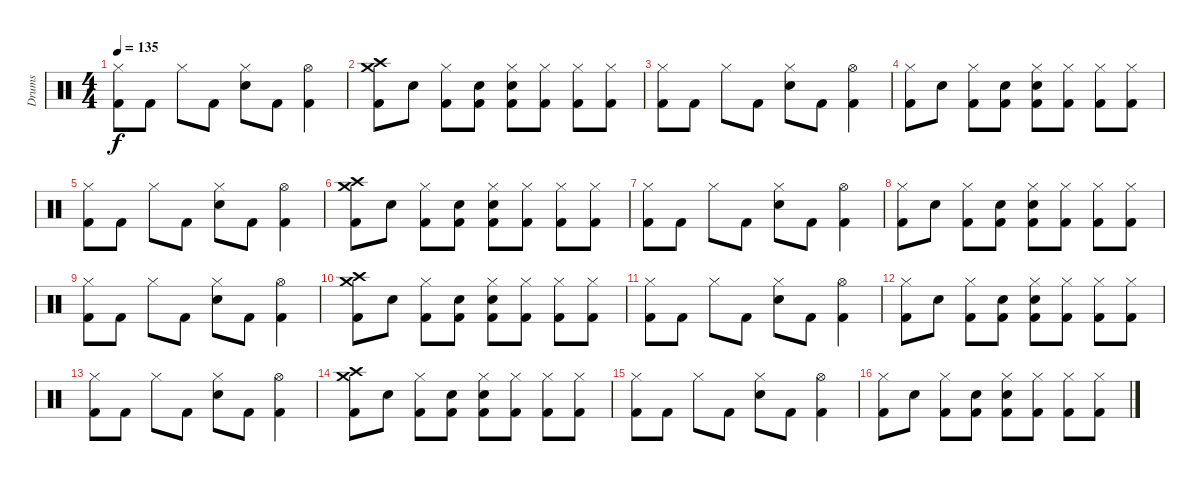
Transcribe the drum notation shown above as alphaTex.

\track ("Drums" "Drums") {instrument percussion}
\staff {score}
\articulation defaults
\ts (4 4)
\tempo 135
\clef neutral
\ks c
("Hi-Hat (closed)" "Kick (hit) 2"{x}).8{dy f} "Kick (hit) 2"{x}.8 "Hi-Hat (closed)".8 "Kick (hit) 2".8 ("Hi-Hat (closed)" "Electric Snare (hit)").8 "Kick (hit) 2".8 ("Hi-Hat (open)" "Kick (hit) 2"{x}).4 |
("Crash medium (hit)" "Crash high (hit)" "Kick (hit) 2").8 "Snare (hit)"{x}.8 ("Hi-Hat (closed)" "Kick (hit) 2"{x}).8 ("Electric Snare (hit)"{x} "Kick (hit) 2").8 ("Hi-Hat (closed)" "Electric Snare (hit)" "Kick (hit) 2"{x}).8 ("Hi-Hat (closed)"{x} "Kick (hit) 2"{x}).8 ("Hi-Hat (closed)" "Kick (hit) 2").8 ("Hi-Hat (closed)"{x} "Kick (hit) 2").8 |
("Hi-Hat (closed)" "Kick (hit) 2"{x}).8 "Kick (hit) 2"{x}.8 "Hi-Hat (closed)".8 "Kick (hit) 2".8 ("Hi-Hat (closed)" "Electric Snare (hit)").8 "Kick (hit) 2".8 ("Hi-Hat (open)" "Kick (hit) 2"{x}).4 |
("Hi-Hat (closed)" "Kick (hit) 2").8 "Snare (hit)"{x}.8 ("Hi-Hat (closed)" "Kick (hit) 2"{x}).8 ("Electric Snare (hit)"{x} "Kick (hit) 2").8 ("Hi-Hat (closed)" "Electric Snare (hit)" "Kick (hit) 2"{x}).8 ("Hi-Hat (closed)"{x} "Kick (hit) 2"{x}).8 ("Hi-Hat (closed)" "Kick (hit) 2").8 ("Hi-Hat (closed)"{x} "Kick (hit) 2").8 |
("Hi-Hat (closed)" "Kick (hit) 2"{x}).8 "Kick (hit) 2"{x}.8 "Hi-Hat (closed)".8 "Kick (hit) 2".8 ("Hi-Hat (closed)" "Electric Snare (hit)").8 "Kick (hit) 2".8 ("Hi-Hat (open)" "Kick (hit) 2"{x}).4 |
("Crash medium (hit)" "Crash high (hit)" "Kick (hit) 2").8 "Snare (hit)"{x}.8 ("Hi-Hat (closed)" "Kick (hit) 2"{x}).8 ("Electric Snare (hit)"{x} "Kick (hit) 2").8 ("Hi-Hat (closed)" "Electric Snare (hit)" "Kick (hit) 2"{x}).8 ("Hi-Hat (closed)"{x} "Kick (hit) 2"{x}).8 ("Hi-Hat (closed)" "Kick (hit) 2").8 ("Hi-Hat (closed)"{x} "Kick (hit) 2").8 |
("Hi-Hat (closed)" "Kick (hit) 2"{x}).8 "Kick (hit) 2"{x}.8 "Hi-Hat (closed)".8 "Kick (hit) 2".8 ("Hi-Hat (closed)" "Electric Snare (hit)").8 "Kick (hit) 2".8 ("Hi-Hat (open)" "Kick (hit) 2"{x}).4 |
("Hi-Hat (closed)" "Kick (hit) 2").8 "Snare (hit)"{x}.8 ("Hi-Hat (closed)" "Kick (hit) 2"{x}).8 ("Electric Snare (hit)"{x} "Kick (hit) 2").8 ("Hi-Hat (closed)" "Electric Snare (hit)" "Kick (hit) 2"{x}).8 ("Hi-Hat (closed)"{x} "Kick (hit) 2"{x}).8 ("Hi-Hat (closed)" "Kick (hit) 2").8 ("Hi-Hat (closed)"{x} "Kick (hit) 2").8 |
("Hi-Hat (closed)" "Kick (hit) 2"{x}).8 "Kick (hit) 2"{x}.8 "Hi-Hat (closed)".8 "Kick (hit) 2".8 ("Hi-Hat (closed)" "Electric Snare (hit)").8 "Kick (hit) 2".8 ("Hi-Hat (open)" "Kick (hit) 2"{x}).4 |
("Crash medium (hit)" "Crash high (hit)" "Kick (hit) 2").8 "Snare (hit)"{x}.8 ("Hi-Hat (closed)" "Kick (hit) 2"{x}).8 ("Electric Snare (hit)"{x} "Kick (hit) 2").8 ("Hi-Hat (closed)" "Electric Snare (hit)" "Kick (hit) 2"{x}).8 ("Hi-Hat (closed)"{x} "Kick (hit) 2"{x}).8 ("Hi-Hat (closed)" "Kick (hit) 2").8 ("Hi-Hat (closed)"{x} "Kick (hit) 2").8 |
("Hi-Hat (closed)" "Kick (hit) 2"{x}).8 "Kick (hit) 2"{x}.8 "Hi-Hat (closed)".8 "Kick (hit) 2".8 ("Hi-Hat (closed)" "Electric Snare (hit)").8 "Kick (hit) 2".8 ("Hi-Hat (open)" "Kick (hit) 2"{x}).4 |
("Hi-Hat (closed)" "Kick (hit) 2").8 "Snare (hit)"{x}.8 ("Hi-Hat (closed)" "Kick (hit) 2"{x}).8 ("Electric Snare (hit)"{x} "Kick (hit) 2").8 ("Hi-Hat (closed)" "Electric Snare (hit)" "Kick (hit) 2"{x}).8 ("Hi-Hat (closed)"{x} "Kick (hit) 2"{x}).8 ("Hi-Hat (closed)" "Kick (hit) 2").8 ("Hi-Hat (closed)"{x} "Kick (hit) 2").8 |
("Hi-Hat (closed)" "Kick (hit) 2"{x}).8 "Kick (hit) 2"{x}.8 "Hi-Hat (closed)".8 "Kick (hit) 2".8 ("Hi-Hat (closed)" "Electric Snare (hit)").8 "Kick (hit) 2".8 ("Hi-Hat (open)" "Kick (hit) 2"{x}).4 |
("Crash medium (hit)" "Crash high (hit)" "Kick (hit) 2").8 "Snare (hit)"{x}.8 ("Hi-Hat (closed)" "Kick (hit) 2"{x}).8 ("Electric Snare (hit)"{x} "Kick (hit) 2").8 ("Hi-Hat (closed)" "Electric Snare (hit)" "Kick (hit) 2"{x}).8 ("Hi-Hat (closed)"{x} "Kick (hit) 2"{x}).8 ("Hi-Hat (closed)" "Kick (hit) 2").8 ("Hi-Hat (closed)"{x} "Kick (hit) 2").8 |
("Hi-Hat (closed)" "Kick (hit) 2"{x}).8 "Kick (hit) 2"{x}.8 "Hi-Hat (closed)".8 "Kick (hit) 2".8 ("Hi-Hat (closed)" "Electric Snare (hit)").8 "Kick (hit) 2".8 ("Hi-Hat (open)" "Kick (hit) 2"{x}).4 |
("Hi-Hat (closed)" "Kick (hit) 2").8 "Snare (hit)"{x}.8 ("Hi-Hat (closed)" "Kick (hit) 2"{x}).8 ("Electric Snare (hit)"{x} "Kick (hit) 2").8 ("Hi-Hat (closed)" "Electric Snare (hit)" "Kick (hit) 2"{x}).8 ("Hi-Hat (closed)"{x} "Kick (hit) 2"{x}).8 ("Hi-Hat (closed)" "Kick (hit) 2").8 ("Hi-Hat (closed)"{x} "Kick (hit) 2").8
